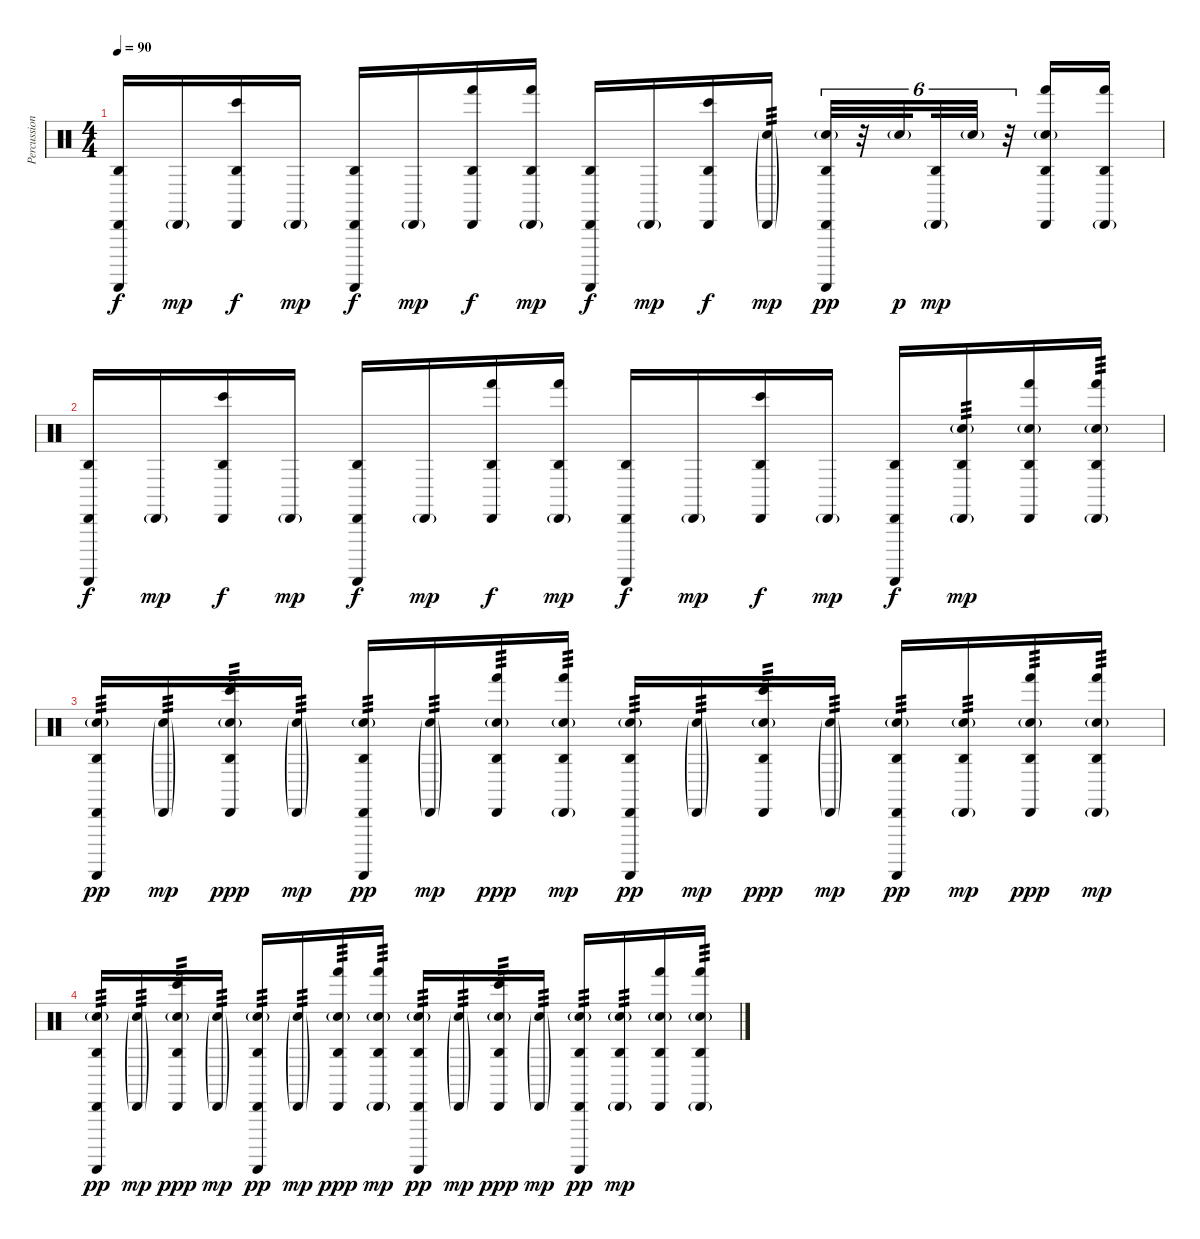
\track ("Percussion" "Percussion") {instrument percussion}
\staff {score}
\articulation defaults
\ts (4 4)
\tempo 90
\clef neutral
\ks c
("Cabasa (hit)" "Agogo high (hit)" "Guiro (scrap-return)").16{dy f} "Cabasa (hit)"{g}.16{dy mp} ("Cabasa (hit)" "Agogo high (hit)" "Bongo High (hit)").16{dy f} "Cabasa (hit)"{g}.16{dy mp} ("Cabasa (hit)" "Agogo high (hit)" "Guiro (scrap-return)").16{dy f} "Cabasa (hit)"{g}.16{dy mp} ("Cabasa (hit)" "Agogo high (hit)" "Hand (hit)").16{dy f} ("Cabasa (hit)"{g} "Agogo high (hit)" "Hand (hit)").16{dy mp} ("Cabasa (hit)" "Agogo high (hit)" "Guiro (scrap-return)").16{dy f} "Cabasa (hit)"{g}.16{dy mp} ("Cabasa (hit)" "Agogo high (hit)" "Bongo High (hit)").16{dy f} ("Snare (hit) 2"{g} "Cabasa (hit)"{g}).16{tp 3 dy mp} ("Snare (hit) 2"{g} "Cabasa (hit)" "Agogo high (hit)" "Guiro (scrap-return)").32{tu (6 4) dy pp} r.32{tu (6 4)} "Snare (hit) 2"{g}.32{tu (6 4) dy p beam splitsecondary} ("Cabasa (hit)"{g} "Agogo high (hit)").32{tu (6 4) dy mp} "Snare (hit) 2"{g}.32{tu (6 4)} r.32{tu (6 4)} ("Snare (hit) 2"{g} "Cabasa (hit)" "Agogo high (hit)" "Hand (hit)").16 ("Cabasa (hit)"{g} "Agogo high (hit)" "Hand (hit)").16 |
("Cabasa (hit)" "Agogo high (hit)" "Guiro (scrap-return)").16{dy f} "Cabasa (hit)"{g}.16{dy mp} ("Cabasa (hit)" "Agogo high (hit)" "Bongo High (hit)").16{dy f} "Cabasa (hit)"{g}.16{dy mp} ("Cabasa (hit)" "Agogo high (hit)" "Guiro (scrap-return)").16{dy f} "Cabasa (hit)"{g}.16{dy mp} ("Cabasa (hit)" "Agogo high (hit)" "Hand (hit)").16{dy f} ("Cabasa (hit)"{g} "Agogo high (hit)" "Hand (hit)").16{dy mp} ("Cabasa (hit)" "Agogo high (hit)" "Guiro (scrap-return)").16{dy f} "Cabasa (hit)"{g}.16{dy mp} ("Cabasa (hit)" "Agogo high (hit)" "Bongo High (hit)").16{dy f} "Cabasa (hit)"{g}.16{dy mp} ("Cabasa (hit)" "Agogo high (hit)" "Guiro (scrap-return)").16{dy f} ("Snare (hit) 2"{g} "Cabasa (hit)"{g} "Agogo high (hit)").16{tp 3 dy mp} ("Snare (hit) 2"{g} "Cabasa (hit)" "Agogo high (hit)" "Hand (hit)").16 ("Snare (hit) 2"{g} "Cabasa (hit)"{g} "Agogo high (hit)" "Hand (hit)").16{tp 3} |
("Snare (hit) 2"{g} "Cabasa (hit)" "Agogo high (hit)" "Guiro (scrap-return)").16{tp 3 dy pp} ("Snare (hit) 2"{g} "Cabasa (hit)"{g}).16{tp 3 dy mp} ("Snare (hit) 2"{g} "Cabasa (hit)" "Agogo high (hit)" "Bongo High (hit)").16{tp 3 dy ppp} ("Snare (hit) 2"{g} "Cabasa (hit)"{g}).16{tp 3 dy mp} ("Snare (hit) 2"{g} "Cabasa (hit)" "Agogo high (hit)" "Guiro (scrap-return)").16{tp 3 dy pp} ("Snare (hit) 2"{g} "Cabasa (hit)"{g}).16{tp 3 dy mp} ("Snare (hit) 2"{g} "Cabasa (hit)" "Agogo high (hit)" "Hand (hit)").16{tp 3 dy ppp} ("Snare (hit) 2"{g} "Cabasa (hit)"{g} "Agogo high (hit)" "Hand (hit)").16{tp 3 dy mp} ("Snare (hit) 2"{g} "Cabasa (hit)" "Agogo high (hit)" "Guiro (scrap-return)").16{tp 3 dy pp} ("Snare (hit) 2"{g} "Cabasa (hit)"{g}).16{tp 3 dy mp} ("Snare (hit) 2"{g} "Cabasa (hit)" "Agogo high (hit)" "Bongo High (hit)").16{tp 3 dy ppp} ("Snare (hit) 2"{g} "Cabasa (hit)"{g}).16{tp 3 dy mp} ("Snare (hit) 2"{g} "Cabasa (hit)" "Agogo high (hit)" "Guiro (scrap-return)").16{tp 3 dy pp} ("Snare (hit) 2"{g} "Cabasa (hit)"{g} "Agogo high (hit)").16{tp 3 dy mp} ("Snare (hit) 2"{g} "Cabasa (hit)" "Agogo high (hit)" "Hand (hit)").16{tp 3 dy ppp} ("Snare (hit) 2"{g} "Cabasa (hit)"{g} "Agogo high (hit)" "Hand (hit)").16{tp 3 dy mp} |
("Snare (hit) 2"{g} "Cabasa (hit)" "Agogo high (hit)" "Guiro (scrap-return)").16{tp 3 dy pp} ("Snare (hit) 2"{g} "Cabasa (hit)"{g}).16{tp 3 dy mp} ("Snare (hit) 2"{g} "Cabasa (hit)" "Agogo high (hit)" "Bongo High (hit)").16{tp 3 dy ppp} ("Snare (hit) 2"{g} "Cabasa (hit)"{g}).16{tp 3 dy mp} ("Snare (hit) 2"{g} "Cabasa (hit)" "Agogo high (hit)" "Guiro (scrap-return)").16{tp 3 dy pp} ("Snare (hit) 2"{g} "Cabasa (hit)"{g}).16{tp 3 dy mp} ("Snare (hit) 2"{g} "Cabasa (hit)" "Agogo high (hit)" "Hand (hit)").16{tp 3 dy ppp} ("Snare (hit) 2"{g} "Cabasa (hit)"{g} "Agogo high (hit)" "Hand (hit)").16{tp 3 dy mp} ("Snare (hit) 2"{g} "Cabasa (hit)" "Agogo high (hit)" "Guiro (scrap-return)").16{tp 3 dy pp} ("Snare (hit) 2"{g} "Cabasa (hit)"{g}).16{tp 3 dy mp} ("Snare (hit) 2"{g} "Cabasa (hit)" "Agogo high (hit)" "Bongo High (hit)").16{tp 3 dy ppp} ("Snare (hit) 2"{g} "Cabasa (hit)"{g}).16{tp 3 dy mp} ("Snare (hit) 2"{g} "Cabasa (hit)" "Agogo high (hit)" "Guiro (scrap-return)").16{tp 3 dy pp} ("Snare (hit) 2"{g} "Cabasa (hit)"{g} "Agogo high (hit)").16{tp 3 dy mp} ("Snare (hit) 2"{g} "Cabasa (hit)" "Agogo high (hit)" "Hand (hit)").16 ("Snare (hit) 2"{g} "Cabasa (hit)"{g} "Agogo high (hit)" "Hand (hit)").16{tp 3}
